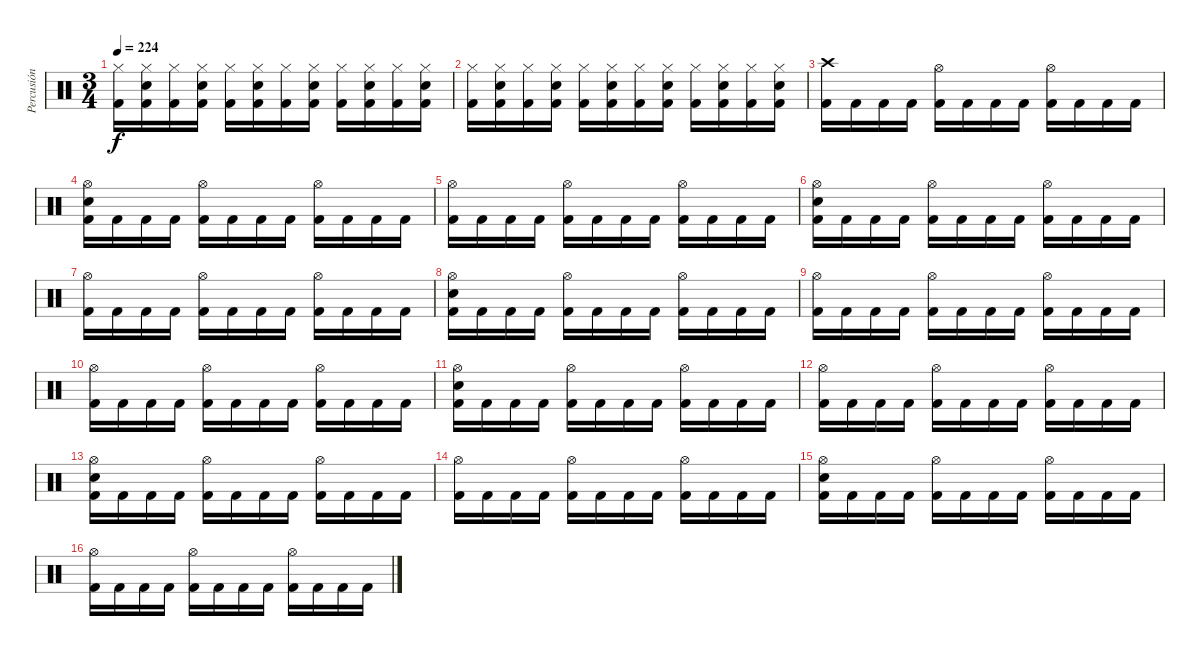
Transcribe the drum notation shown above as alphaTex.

\track ("Percusión" "Percusión") {instrument percussion}
\staff {score}
\articulation defaults
\ts (3 4)
\tempo 224
\clef neutral
\ks c
("Hi-Hat (closed)" "Kick (hit) 2").16{dy f} ("Hi-Hat (closed)" "Electric Snare (hit)" "Kick (hit) 2").16 ("Hi-Hat (closed)" "Kick (hit) 2").16 ("Hi-Hat (closed)" "Electric Snare (hit)" "Kick (hit) 2").16 ("Hi-Hat (closed)" "Kick (hit) 2").16 ("Hi-Hat (closed)" "Electric Snare (hit)" "Kick (hit) 2").16 ("Hi-Hat (closed)" "Kick (hit) 2").16 ("Hi-Hat (closed)" "Electric Snare (hit)" "Kick (hit) 2").16 ("Hi-Hat (closed)" "Kick (hit) 2").16 ("Hi-Hat (closed)" "Electric Snare (hit)" "Kick (hit) 2").16 ("Hi-Hat (closed)" "Kick (hit) 2").16 ("Hi-Hat (closed)" "Electric Snare (hit)" "Kick (hit) 2").16 |
("Hi-Hat (closed)" "Kick (hit) 2").16 ("Hi-Hat (closed)" "Electric Snare (hit)" "Kick (hit) 2").16 ("Hi-Hat (closed)" "Kick (hit) 2").16 ("Hi-Hat (closed)" "Electric Snare (hit)" "Kick (hit) 2").16 ("Hi-Hat (closed)" "Kick (hit) 2").16 ("Hi-Hat (closed)" "Electric Snare (hit)" "Kick (hit) 2").16 ("Hi-Hat (closed)" "Kick (hit) 2").16 ("Hi-Hat (closed)" "Electric Snare (hit)" "Kick (hit) 2").16 ("Hi-Hat (closed)" "Kick (hit) 2").16 ("Hi-Hat (closed)" "Electric Snare (hit)" "Kick (hit) 2").16 ("Hi-Hat (closed)" "Kick (hit) 2").16 ("Hi-Hat (closed)" "Electric Snare (hit)" "Kick (hit) 2").16 |
("Crash high (hit)" "Kick (hit) 2").16 "Kick (hit) 2".16 "Kick (hit) 2".16 "Kick (hit) 2".16 ("Hi-Hat (open)" "Kick (hit) 2").16 "Kick (hit) 2".16 "Kick (hit) 2".16 "Kick (hit) 2".16 ("Hi-Hat (open)" "Kick (hit) 2").16 "Kick (hit) 2".16 "Kick (hit) 2".16 "Kick (hit) 2".16 |
("Hi-Hat (open)" "Electric Snare (hit)" "Kick (hit) 2").16 "Kick (hit) 2".16 "Kick (hit) 2".16 "Kick (hit) 2".16 ("Hi-Hat (open)" "Kick (hit) 2").16 "Kick (hit) 2".16 "Kick (hit) 2".16 "Kick (hit) 2".16 ("Hi-Hat (open)" "Kick (hit) 2").16 "Kick (hit) 2".16 "Kick (hit) 2".16 "Kick (hit) 2".16 |
("Hi-Hat (open)" "Kick (hit) 2").16 "Kick (hit) 2".16 "Kick (hit) 2".16 "Kick (hit) 2".16 ("Hi-Hat (open)" "Kick (hit) 2").16 "Kick (hit) 2".16 "Kick (hit) 2".16 "Kick (hit) 2".16 ("Hi-Hat (open)" "Kick (hit) 2").16 "Kick (hit) 2".16 "Kick (hit) 2".16 "Kick (hit) 2".16 |
("Hi-Hat (open)" "Electric Snare (hit)" "Kick (hit) 2").16 "Kick (hit) 2".16 "Kick (hit) 2".16 "Kick (hit) 2".16 ("Hi-Hat (open)" "Kick (hit) 2").16 "Kick (hit) 2".16 "Kick (hit) 2".16 "Kick (hit) 2".16 ("Hi-Hat (open)" "Kick (hit) 2").16 "Kick (hit) 2".16 "Kick (hit) 2".16 "Kick (hit) 2".16 |
("Hi-Hat (open)" "Kick (hit) 2").16 "Kick (hit) 2".16 "Kick (hit) 2".16 "Kick (hit) 2".16 ("Hi-Hat (open)" "Kick (hit) 2").16 "Kick (hit) 2".16 "Kick (hit) 2".16 "Kick (hit) 2".16 ("Hi-Hat (open)" "Kick (hit) 2").16 "Kick (hit) 2".16 "Kick (hit) 2".16 "Kick (hit) 2".16 |
("Hi-Hat (open)" "Electric Snare (hit)" "Kick (hit) 2").16 "Kick (hit) 2".16 "Kick (hit) 2".16 "Kick (hit) 2".16 ("Hi-Hat (open)" "Kick (hit) 2").16 "Kick (hit) 2".16 "Kick (hit) 2".16 "Kick (hit) 2".16 ("Hi-Hat (open)" "Kick (hit) 2").16 "Kick (hit) 2".16 "Kick (hit) 2".16 "Kick (hit) 2".16 |
("Hi-Hat (open)" "Kick (hit) 2").16 "Kick (hit) 2".16 "Kick (hit) 2".16 "Kick (hit) 2".16 ("Hi-Hat (open)" "Kick (hit) 2").16 "Kick (hit) 2".16 "Kick (hit) 2".16 "Kick (hit) 2".16 ("Hi-Hat (open)" "Kick (hit) 2").16 "Kick (hit) 2".16 "Kick (hit) 2".16 "Kick (hit) 2".16 |
("Hi-Hat (open)" "Kick (hit) 2").16 "Kick (hit) 2".16 "Kick (hit) 2".16 "Kick (hit) 2".16 ("Hi-Hat (open)" "Kick (hit) 2").16 "Kick (hit) 2".16 "Kick (hit) 2".16 "Kick (hit) 2".16 ("Hi-Hat (open)" "Kick (hit) 2").16 "Kick (hit) 2".16 "Kick (hit) 2".16 "Kick (hit) 2".16 |
("Hi-Hat (open)" "Electric Snare (hit)" "Kick (hit) 2").16 "Kick (hit) 2".16 "Kick (hit) 2".16 "Kick (hit) 2".16 ("Hi-Hat (open)" "Kick (hit) 2").16 "Kick (hit) 2".16 "Kick (hit) 2".16 "Kick (hit) 2".16 ("Hi-Hat (open)" "Kick (hit) 2").16 "Kick (hit) 2".16 "Kick (hit) 2".16 "Kick (hit) 2".16 |
("Hi-Hat (open)" "Kick (hit) 2").16 "Kick (hit) 2".16 "Kick (hit) 2".16 "Kick (hit) 2".16 ("Hi-Hat (open)" "Kick (hit) 2").16 "Kick (hit) 2".16 "Kick (hit) 2".16 "Kick (hit) 2".16 ("Hi-Hat (open)" "Kick (hit) 2").16 "Kick (hit) 2".16 "Kick (hit) 2".16 "Kick (hit) 2".16 |
("Hi-Hat (open)" "Electric Snare (hit)" "Kick (hit) 2").16 "Kick (hit) 2".16 "Kick (hit) 2".16 "Kick (hit) 2".16 ("Hi-Hat (open)" "Kick (hit) 2").16 "Kick (hit) 2".16 "Kick (hit) 2".16 "Kick (hit) 2".16 ("Hi-Hat (open)" "Kick (hit) 2").16 "Kick (hit) 2".16 "Kick (hit) 2".16 "Kick (hit) 2".16 |
("Hi-Hat (open)" "Kick (hit) 2").16 "Kick (hit) 2".16 "Kick (hit) 2".16 "Kick (hit) 2".16 ("Hi-Hat (open)" "Kick (hit) 2").16 "Kick (hit) 2".16 "Kick (hit) 2".16 "Kick (hit) 2".16 ("Hi-Hat (open)" "Kick (hit) 2").16 "Kick (hit) 2".16 "Kick (hit) 2".16 "Kick (hit) 2".16 |
("Hi-Hat (open)" "Electric Snare (hit)" "Kick (hit) 2").16 "Kick (hit) 2".16 "Kick (hit) 2".16 "Kick (hit) 2".16 ("Hi-Hat (open)" "Kick (hit) 2").16 "Kick (hit) 2".16 "Kick (hit) 2".16 "Kick (hit) 2".16 ("Hi-Hat (open)" "Kick (hit) 2").16 "Kick (hit) 2".16 "Kick (hit) 2".16 "Kick (hit) 2".16 |
("Hi-Hat (open)" "Kick (hit) 2").16 "Kick (hit) 2".16 "Kick (hit) 2".16 "Kick (hit) 2".16 ("Hi-Hat (open)" "Kick (hit) 2").16 "Kick (hit) 2".16 "Kick (hit) 2".16 "Kick (hit) 2".16 ("Hi-Hat (open)" "Kick (hit) 2").16 "Kick (hit) 2".16 "Kick (hit) 2".16 "Kick (hit) 2".16
